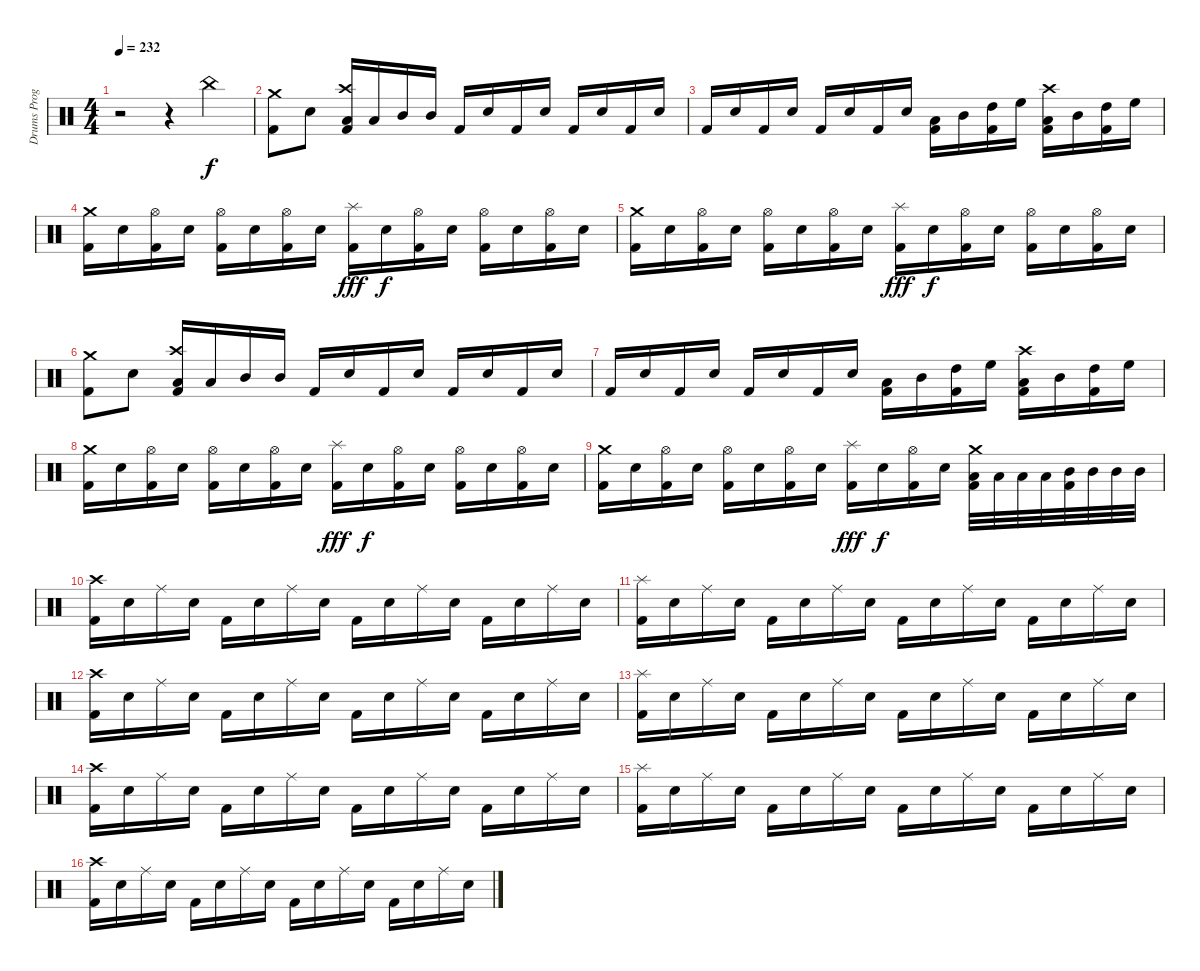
\track ("Drums Programming" "Drums Prog") {instrument percussion}
\staff {score}
\articulation defaults
\ts (4 4)
\tempo 232
\clef neutral
\ks c
r.2{dy f} r.4 "China (hit)".4 |
("Crash medium (hit)" "Kick (hit) 2").8 "Electric Snare (hit)".8 ("Crash high (hit)" "Low Tom (hit)" "Kick (hit) 2").16 "Low Tom (hit)".16 "Mid Tom (hit)".16 "Mid Tom (hit)".16 "Kick (hit) 2".16 "Electric Snare (hit)".16 "Kick (hit) 2".16 "Electric Snare (hit)".16 "Kick (hit) 2".16 "Electric Snare (hit)".16 "Kick (hit) 2".16 "Electric Snare (hit)".16 |
"Kick (hit) 2".16 "Electric Snare (hit)".16 "Kick (hit) 2".16 "Electric Snare (hit)".16 "Kick (hit) 2".16 "Electric Snare (hit)".16 "Kick (hit) 2".16 "Electric Snare (hit)".16 ("Low Tom (hit)" "Kick (hit) 2").16 "Mid Tom (hit)".16 ("High Tom (hit)" "Kick (hit) 2").16 "High Floor Tom (hit)".16 ("Crash high (hit)" "Low Tom (hit)" "Kick (hit) 2").16 "Mid Tom (hit)".16 ("High Tom (hit)" "Kick (hit) 2").16 "High Floor Tom (hit)".16 |
("Crash medium (hit)" "Kick (hit) 2").16 "Electric Snare (hit)".16 ("Hi-Hat (open)" "Kick (hit) 2").16 "Electric Snare (hit)".16 ("Hi-Hat (open)" "Kick (hit) 2").16 "Electric Snare (hit)".16 ("Hi-Hat (open)" "Kick (hit) 2").16 "Electric Snare (hit)".16 ("Splash (hit)" "Kick (hit) 2").16{dy fff} "Electric Snare (hit)".16{dy f} ("Hi-Hat (open)" "Kick (hit) 2").16 "Electric Snare (hit)".16 ("Hi-Hat (open)" "Kick (hit) 2").16 "Electric Snare (hit)".16 ("Hi-Hat (open)" "Kick (hit) 2").16 "Electric Snare (hit)".16 |
("Crash medium (hit)" "Kick (hit) 2").16 "Electric Snare (hit)".16 ("Hi-Hat (open)" "Kick (hit) 2").16 "Electric Snare (hit)".16 ("Hi-Hat (open)" "Kick (hit) 2").16 "Electric Snare (hit)".16 ("Hi-Hat (open)" "Kick (hit) 2").16 "Electric Snare (hit)".16 ("Splash (hit)" "Kick (hit) 2").16{dy fff} "Electric Snare (hit)".16{dy f} ("Hi-Hat (open)" "Kick (hit) 2").16 "Electric Snare (hit)".16 ("Hi-Hat (open)" "Kick (hit) 2").16 "Electric Snare (hit)".16 ("Hi-Hat (open)" "Kick (hit) 2").16 "Electric Snare (hit)".16 |
("Crash medium (hit)" "Kick (hit) 2").8 "Electric Snare (hit)".8 ("Crash high (hit)" "Low Tom (hit)" "Kick (hit) 2").16 "Low Tom (hit)".16 "Mid Tom (hit)".16 "Mid Tom (hit)".16 "Kick (hit) 2".16 "Electric Snare (hit)".16 "Kick (hit) 2".16 "Electric Snare (hit)".16 "Kick (hit) 2".16 "Electric Snare (hit)".16 "Kick (hit) 2".16 "Electric Snare (hit)".16 |
"Kick (hit) 2".16 "Electric Snare (hit)".16 "Kick (hit) 2".16 "Electric Snare (hit)".16 "Kick (hit) 2".16 "Electric Snare (hit)".16 "Kick (hit) 2".16 "Electric Snare (hit)".16 ("Low Tom (hit)" "Kick (hit) 2").16 "Mid Tom (hit)".16 ("High Tom (hit)" "Kick (hit) 2").16 "High Floor Tom (hit)".16 ("Crash high (hit)" "Low Tom (hit)" "Kick (hit) 2").16 "Mid Tom (hit)".16 ("High Tom (hit)" "Kick (hit) 2").16 "High Floor Tom (hit)".16 |
("Crash medium (hit)" "Kick (hit) 2").16 "Electric Snare (hit)".16 ("Hi-Hat (open)" "Kick (hit) 2").16 "Electric Snare (hit)".16 ("Hi-Hat (open)" "Kick (hit) 2").16 "Electric Snare (hit)".16 ("Hi-Hat (open)" "Kick (hit) 2").16 "Electric Snare (hit)".16 ("Splash (hit)" "Kick (hit) 2").16{dy fff} "Electric Snare (hit)".16{dy f} ("Hi-Hat (open)" "Kick (hit) 2").16 "Electric Snare (hit)".16 ("Hi-Hat (open)" "Kick (hit) 2").16 "Electric Snare (hit)".16 ("Hi-Hat (open)" "Kick (hit) 2").16 "Electric Snare (hit)".16 |
("Crash medium (hit)" "Kick (hit) 2").16 "Electric Snare (hit)".16 ("Hi-Hat (open)" "Kick (hit) 2").16 "Electric Snare (hit)".16 ("Hi-Hat (open)" "Kick (hit) 2").16 "Electric Snare (hit)".16 ("Hi-Hat (open)" "Kick (hit) 2").16 "Electric Snare (hit)".16 ("Splash (hit)" "Kick (hit) 2").16{dy fff} "Electric Snare (hit)".16{dy f} ("Hi-Hat (open)" "Kick (hit) 2").16 "Electric Snare (hit)".16 ("Crash medium (hit)" "Low Tom (hit)" "Kick (hit) 2").32 "Low Tom (hit)".32 "Low Tom (hit)".32 "Low Tom (hit)".32 ("Mid Tom (hit)" "Kick (hit) 2").32 "Mid Tom (hit)".32 "Mid Tom (hit)".32 "Mid Tom (hit)".32 |
("Crash high (hit)" "Kick (hit) 2").16 "Electric Snare (hit)".16 "Ride (middle)".16 "Electric Snare (hit)".16 "Kick (hit) 2".16 "Electric Snare (hit)".16 "Ride (middle)".16 "Electric Snare (hit)".16 "Kick (hit) 2".16 "Electric Snare (hit)".16 "Ride (middle)".16 "Electric Snare (hit)".16 "Kick (hit) 2".16 "Electric Snare (hit)".16 "Ride (middle)".16 "Electric Snare (hit)".16 |
("Splash (hit)" "Kick (hit) 2").16 "Electric Snare (hit)".16 "Ride (middle)".16 "Electric Snare (hit)".16 "Kick (hit) 2".16 "Electric Snare (hit)".16 "Ride (middle)".16 "Electric Snare (hit)".16 "Kick (hit) 2".16 "Electric Snare (hit)".16 "Ride (middle)".16 "Electric Snare (hit)".16 "Kick (hit) 2".16 "Electric Snare (hit)".16 "Ride (middle)".16 "Electric Snare (hit)".16 |
("Crash high (hit)" "Kick (hit) 2").16 "Electric Snare (hit)".16 "Ride (middle)".16 "Electric Snare (hit)".16 "Kick (hit) 2".16 "Electric Snare (hit)".16 "Ride (middle)".16 "Electric Snare (hit)".16 "Kick (hit) 2".16 "Electric Snare (hit)".16 "Ride (middle)".16 "Electric Snare (hit)".16 "Kick (hit) 2".16 "Electric Snare (hit)".16 "Ride (middle)".16 "Electric Snare (hit)".16 |
("Splash (hit)" "Kick (hit) 2").16 "Electric Snare (hit)".16 "Ride (middle)".16 "Electric Snare (hit)".16 "Kick (hit) 2".16 "Electric Snare (hit)".16 "Ride (middle)".16 "Electric Snare (hit)".16 "Kick (hit) 2".16 "Electric Snare (hit)".16 "Ride (middle)".16 "Electric Snare (hit)".16 "Kick (hit) 2".16 "Electric Snare (hit)".16 "Ride (middle)".16 "Electric Snare (hit)".16 |
("Crash high (hit)" "Kick (hit) 2").16 "Electric Snare (hit)".16 "Ride (middle)".16 "Electric Snare (hit)".16 "Kick (hit) 2".16 "Electric Snare (hit)".16 "Ride (middle)".16 "Electric Snare (hit)".16 "Kick (hit) 2".16 "Electric Snare (hit)".16 "Ride (middle)".16 "Electric Snare (hit)".16 "Kick (hit) 2".16 "Electric Snare (hit)".16 "Ride (middle)".16 "Electric Snare (hit)".16 |
("Splash (hit)" "Kick (hit) 2").16 "Electric Snare (hit)".16 "Ride (middle)".16 "Electric Snare (hit)".16 "Kick (hit) 2".16 "Electric Snare (hit)".16 "Ride (middle)".16 "Electric Snare (hit)".16 "Kick (hit) 2".16 "Electric Snare (hit)".16 "Ride (middle)".16 "Electric Snare (hit)".16 "Kick (hit) 2".16 "Electric Snare (hit)".16 "Ride (middle)".16 "Electric Snare (hit)".16 |
("Crash high (hit)" "Kick (hit) 2").16 "Electric Snare (hit)".16 "Ride (middle)".16 "Electric Snare (hit)".16 "Kick (hit) 2".16 "Electric Snare (hit)".16 "Ride (middle)".16 "Electric Snare (hit)".16 "Kick (hit) 2".16 "Electric Snare (hit)".16 "Ride (middle)".16 "Electric Snare (hit)".16 "Kick (hit) 2".16 "Electric Snare (hit)".16 "Ride (middle)".16 "Electric Snare (hit)".16
